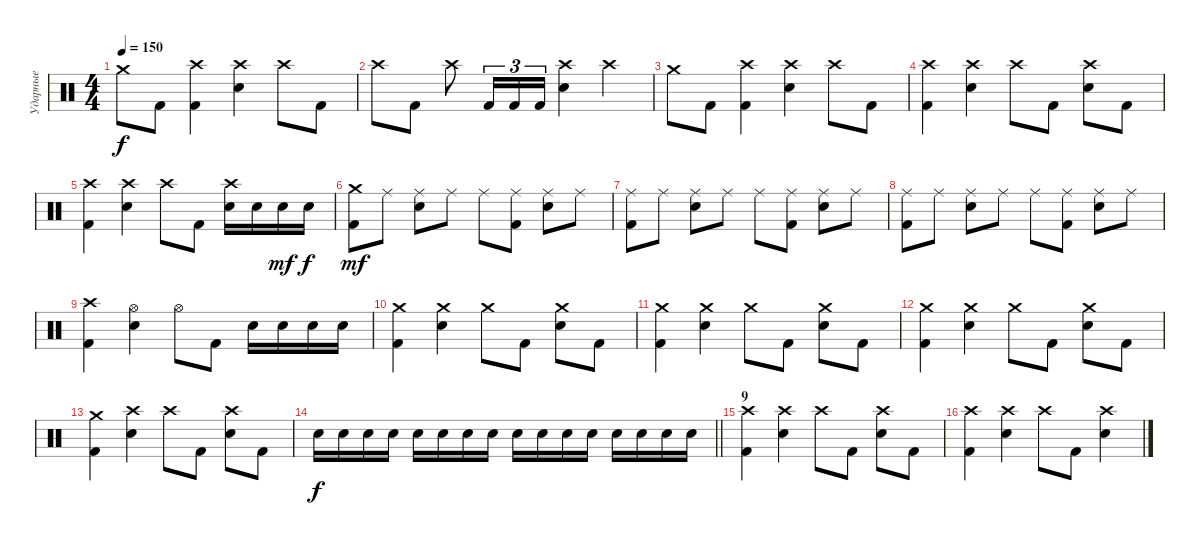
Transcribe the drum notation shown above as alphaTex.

\track ("Ударные" "Ударные") {instrument percussion}
\staff {score}
\articulation defaults
\ts (4 4)
\tempo 150
\clef neutral
\ks c "Crash medium (hit)".8{dy f} "Kick (hit) 2".8
("Crash high (hit)" "Kick (hit) 2").4 ("Crash high (hit)" "Electric Snare (hit)").4 "Crash high (hit)".8 "Kick (hit) 2".8 |
"Crash high (hit)".8 "Kick (hit) 2".8 "Crash high (hit)".8 "Kick (hit) 2".16{tu (3 2)} "Kick (hit) 2".16{tu (3 2)} "Kick (hit) 2".16{tu (3 2)} ("Crash high (hit)" "Electric Snare (hit)").4 "Crash high (hit)".4 |
"Crash medium (hit)".8 "Kick (hit) 2".8 ("Crash high (hit)" "Kick (hit) 2").4 ("Crash high (hit)" "Electric Snare (hit)").4 "Crash high (hit)".8 "Kick (hit) 2".8 |
("Crash high (hit)" "Kick (hit) 2").4 ("Crash high (hit)" "Electric Snare (hit)").4 "Crash high (hit)".8 "Kick (hit) 2".8 ("Crash high (hit)" "Electric Snare (hit)").8 "Kick (hit) 2".8 |
("Crash high (hit)" "Kick (hit) 2").4 ("Crash high (hit)" "Electric Snare (hit)").4 "Crash high (hit)".8 "Kick (hit) 2".8 ("Crash high (hit)" "Snare (hit) 2").16 "Snare (hit) 2".16 "Snare (hit) 2".16{dy mf} "Snare (hit) 2".16{dy f} |
("Crash medium (hit)" "Kick (hit) 2").8{dy mf} "Ride (middle)".8 ("Ride (middle)" "Electric Snare (hit)").8 "Ride (middle)".8 "Ride (middle)".8 ("Ride (middle)" "Kick (hit) 2").8 ("Ride (middle)" "Electric Snare (hit)").8 "Ride (middle)".8 |
("Ride (middle)" "Kick (hit) 2").8 "Ride (middle)".8 ("Ride (middle)" "Electric Snare (hit)").8 "Ride (middle)".8 "Ride (middle)".8 ("Ride (middle)" "Kick (hit) 2").8 ("Ride (middle)" "Electric Snare (hit)").8 "Ride (middle)".8 |
("Ride (middle)" "Kick (hit) 2").8 "Ride (middle)".8 ("Ride (middle)" "Electric Snare (hit)").8 "Ride (middle)".8 "Ride (middle)".8 ("Ride (middle)" "Kick (hit) 2").8 ("Ride (middle)" "Electric Snare (hit)").8 "Ride (middle)".8 |
("Crash high (hit)" "Kick (hit) 2").4 ("Hi-Hat (open)" "Electric Snare (hit)").4 "Hi-Hat (open)".8 "Kick (hit) 2".8 "Electric Snare (hit)".16 "Electric Snare (hit)".16 "Electric Snare (hit)".16 "Electric Snare (hit)".16 |
("Crash medium (hit)" "Kick (hit) 2").4 ("Crash medium (hit)" "Electric Snare (hit)").4 "Crash medium (hit)".8 "Kick (hit) 2".8 ("Crash medium (hit)" "Electric Snare (hit)").8 "Kick (hit) 2".8 |
("Crash medium (hit)" "Kick (hit) 2").4 ("Crash medium (hit)" "Electric Snare (hit)").4 "Crash medium (hit)".8 "Kick (hit) 2".8 ("Crash medium (hit)" "Electric Snare (hit)").8 "Kick (hit) 2".8 |
("Crash medium (hit)" "Kick (hit) 2").4 ("Crash medium (hit)" "Electric Snare (hit)").4 "Crash medium (hit)".8 "Kick (hit) 2".8 ("Crash medium (hit)" "Electric Snare (hit)").8 "Kick (hit) 2".8 |
("Crash medium (hit)" "Kick (hit) 2").4 ("Crash high (hit)" "Electric Snare (hit)").4 "Crash high (hit)".8 "Kick (hit) 2".8 ("Crash high (hit)" "Electric Snare (hit)").8 "Kick (hit) 2".8 |
\barLineRight lightlight "Electric Snare (hit)".16{dy f} "Electric Snare (hit)".16 "Electric Snare (hit)".16 "Electric Snare (hit)".16 "Electric Snare (hit)".16 "Electric Snare (hit)".16 "Electric Snare (hit)".16 "Electric Snare (hit)".16 "Electric Snare (hit)".16 "Electric Snare (hit)".16 "Electric Snare (hit)".16 "Electric Snare (hit)".16 "Electric Snare (hit)".16 "Electric Snare (hit)".16 "Electric Snare (hit)".16 "Electric Snare (hit)".16
|
\section ("" "9")
("Crash high (hit)" "Kick (hit) 2").4 ("Crash high (hit)" "Electric Snare (hit)").4 "Crash high (hit)".8 "Kick (hit) 2".8 ("Crash high (hit)" "Electric Snare (hit)").8 "Kick (hit) 2".8 |
("Crash high (hit)" "Kick (hit) 2").4 ("Crash high (hit)" "Electric Snare (hit)").4 "Crash high (hit)".8 "Kick (hit) 2".8 ("Crash high (hit)" "Electric Snare (hit)").4
